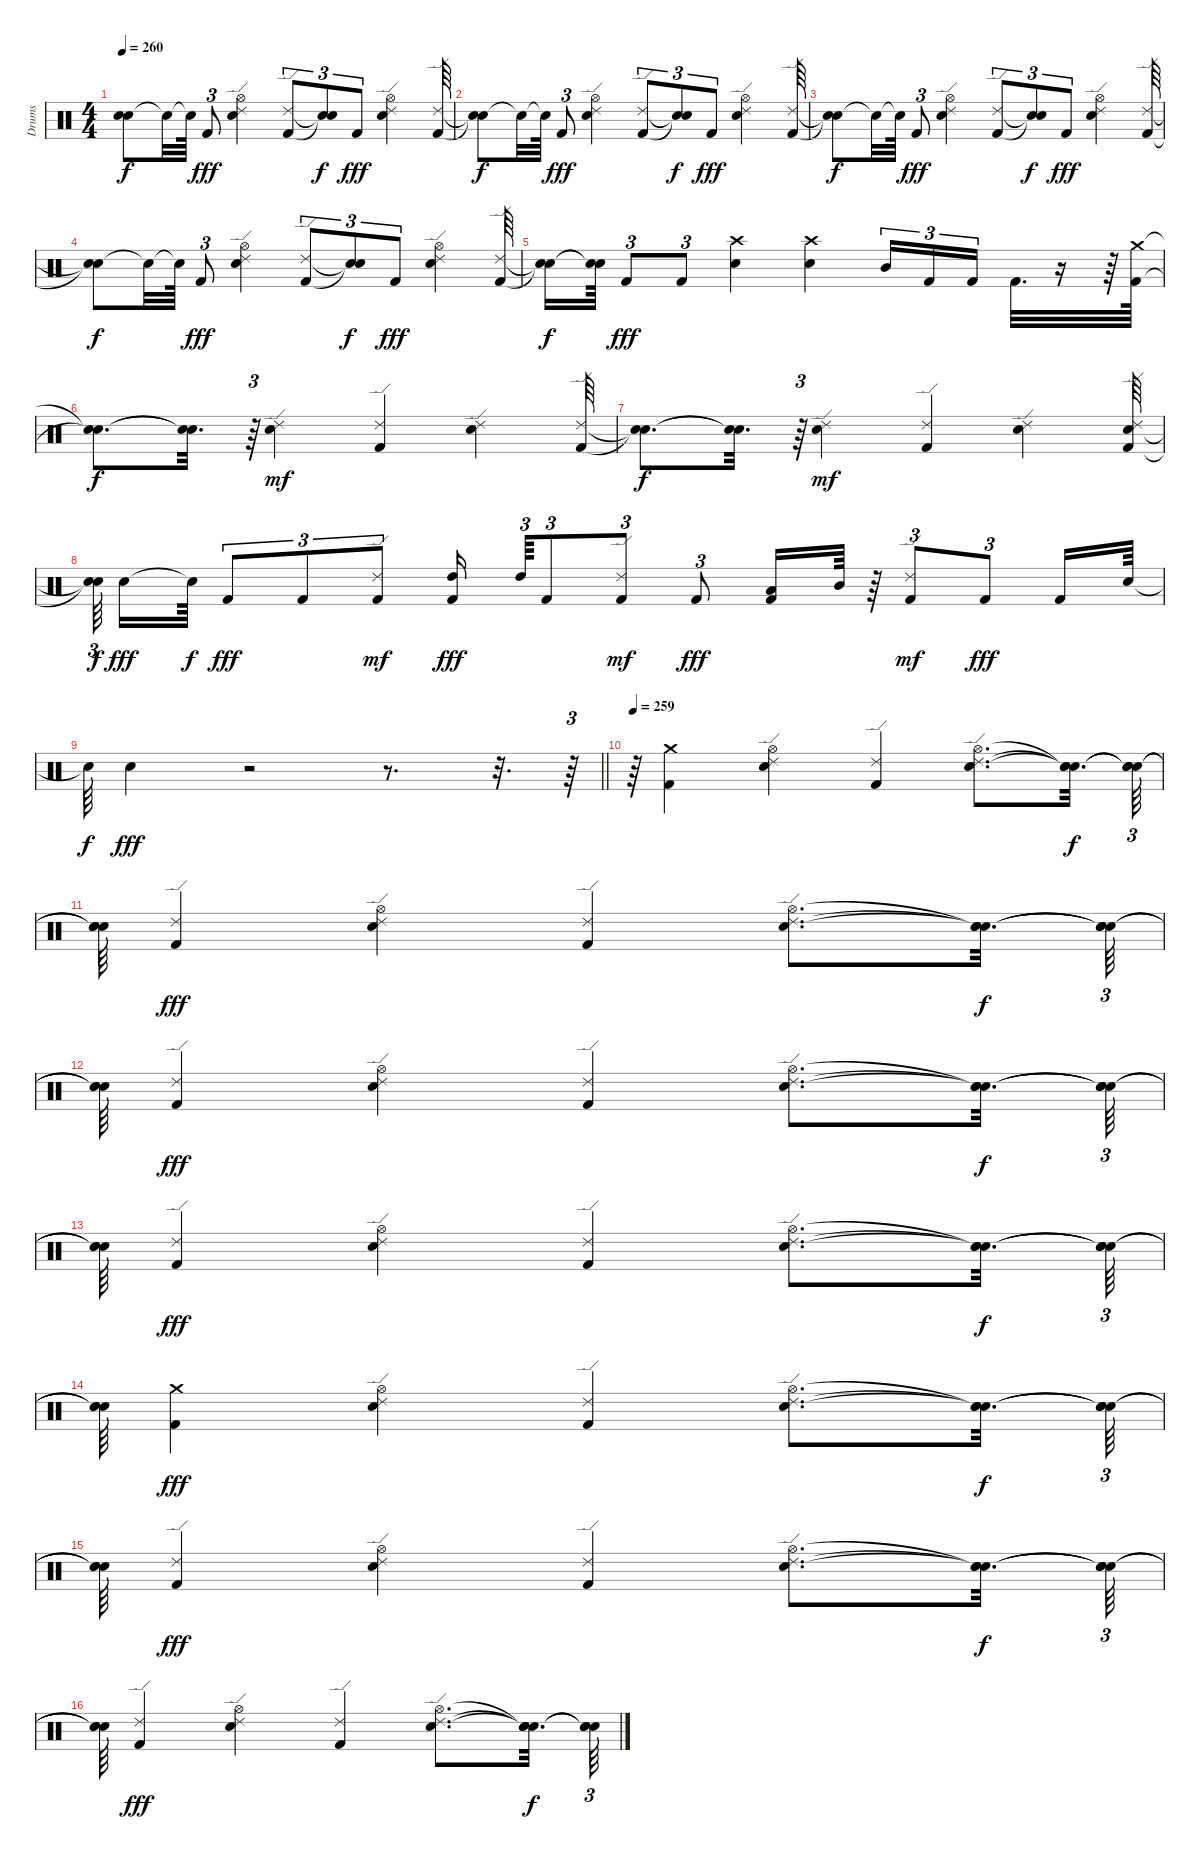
\track ("Drums" "Drums") {instrument percussion}
\staff {score}
\articulation defaults
\ts (4 4)
\tempo 260
\clef neutral
\ks c
("Snare (hit)"{t} "Snare (hit)"{t}).8{dy f} "Snare (hit)"{t}.32 "Snare (hit)"{t}.64 "Kick (hit) 2".8{tu (3 2) dy fff} ("Electric Snare (hit)" "Ride (edge) 2" "Hi-Hat (open)").4 ("Kick (hit) 2" "Ride (edge) 2").8{tu (3 2)} ("Snare (hit)"{t} "Snare (hit)"{t}).8{tu (3 2) dy f} "Kick (hit) 2".8{tu (3 2) dy fff} ("Electric Snare (hit)" "Ride (edge) 2" "Hi-Hat (open)").4 ("Kick (hit) 2" "Ride (edge) 2").64 |
("Snare (hit)"{t} "Snare (hit)"{t}).8{dy f} "Snare (hit)"{t}.32 "Snare (hit)"{t}.64 "Kick (hit) 2".8{tu (3 2) dy fff} ("Electric Snare (hit)" "Ride (edge) 2" "Hi-Hat (open)").4 ("Kick (hit) 2" "Ride (edge) 2").8{tu (3 2)} ("Snare (hit)"{t} "Snare (hit)"{t}).8{tu (3 2) dy f} "Kick (hit) 2".8{tu (3 2) dy fff} ("Electric Snare (hit)" "Ride (edge) 2" "Hi-Hat (open)").4 ("Kick (hit) 2" "Ride (edge) 2").64 |
("Snare (hit)"{t} "Snare (hit)"{t}).8{dy f} "Snare (hit)"{t}.32 "Snare (hit)"{t}.64 "Kick (hit) 2".8{tu (3 2) dy fff} ("Electric Snare (hit)" "Ride (edge) 2" "Hi-Hat (open)").4 ("Kick (hit) 2" "Ride (edge) 2").8{tu (3 2)} ("Snare (hit)"{t} "Snare (hit)"{t}).8{tu (3 2) dy f} "Kick (hit) 2".8{tu (3 2) dy fff} ("Electric Snare (hit)" "Ride (edge) 2" "Hi-Hat (open)").4 ("Kick (hit) 2" "Ride (edge) 2").64 |
("Snare (hit)"{t} "Snare (hit)"{t}).8{dy f} "Snare (hit)"{t}.32 "Snare (hit)"{t}.64 "Kick (hit) 2".8{tu (3 2) dy fff} ("Electric Snare (hit)" "Ride (edge) 2" "Hi-Hat (open)").4 ("Kick (hit) 2" "Ride (edge) 2").8{tu (3 2)} ("Snare (hit)"{t} "Snare (hit)"{t}).8{tu (3 2) dy f} "Kick (hit) 2".8{tu (3 2) dy fff} ("Electric Snare (hit)" "Ride (edge) 2" "Hi-Hat (open)").4 ("Kick (hit) 2" "Ride (edge) 2").64 |
("Snare (hit)"{t} "Snare (hit)"{t}).16{dy f} ("Snare (hit)"{t} "Snare (hit)"{t}).64 "Kick (hit) 2".8{tu (3 2) dy fff} "Kick (hit) 2".8{tu (3 2)} ("Electric Snare (hit)" "Crash high (hit)").4 ("Electric Snare (hit)" "Crash high (hit)").4 "Mid Tom (hit)".16{tu (3 2)} "Kick (hit) 2".16{tu (3 2)} "Kick (hit) 2".16{tu (3 2) beam splitsecondary} "Kick (hit) 2".32{d} r.16 r.64 ("Kick (hit) 2" "Crash medium (hit)").64 |
("Snare (hit)"{t} "Snare (hit)"{t}).8{d dy f} ("Snare (hit)"{t} "Snare (hit)"{t}).32{d} r.64{tu (3 2)} ("Electric Snare (hit)" "Ride (edge) 2").4{dy mf} ("Kick (hit) 2" "Ride (edge) 2").4 ("Electric Snare (hit)" "Ride (edge) 2").4 ("Kick (hit) 2" "Ride (edge) 2").64 |
("Snare (hit)"{t} "Snare (hit)"{t}).8{d dy f} ("Snare (hit)"{t} "Snare (hit)"{t}).32{d} r.64{tu (3 2)} ("Electric Snare (hit)" "Ride (edge) 2").4{dy mf} ("Kick (hit) 2" "Ride (edge) 2").4 ("Electric Snare (hit)" "Ride (edge) 2").4 ("Kick (hit) 2" "Electric Snare (hit)" "Ride (edge) 2").64 |
("Snare (hit)"{t} "Snare (hit)"{t}).64{tu (3 2) dy f beam splitsecondary} "Electric Snare (hit)".16{dy fff} "Snare (hit)"{t}.64{dy f} "Kick (hit) 2".8{tu (3 2) dy fff} "Kick (hit) 2".8{tu (3 2)} ("Kick (hit) 2" "Ride (edge) 2").8{tu (3 2) dy mf} ("Kick (hit) 2" "High Tom (hit)").16{dy fff beam splitsecondary} "High Tom (hit)".64{tu (3 2)} "Kick (hit) 2".8{tu (3 2)} ("Kick (hit) 2" "Ride (edge) 2").8{tu (3 2) dy mf} "Kick (hit) 2".8{tu (3 2) dy fff} ("Kick (hit) 2" "Low Tom (hit)").16 "Mid Tom (hit)".64 r.64 ("Kick (hit) 2" "Ride (edge) 2").8{tu (3 2) dy mf} "Kick (hit) 2".8{tu (3 2) dy fff} "Kick (hit) 2".16 "Electric Snare (hit)".64 |
\barLineRight lightlight "Snare (hit)"{t}.64{dy f} "Electric Snare (hit)".4{dy fff}
r.2 r.8{d} r.32{d} r.64{tu (3 2)} |
\section ("" "")
\tempo 259
r.64 ("Kick (hit) 2" "Crash medium (hit)").4 ("Electric Snare (hit)" "Ride (edge) 2" "Hi-Hat (open)").4 ("Kick (hit) 2" "Ride (edge) 2").4 ("Electric Snare (hit)" "Ride (edge) 2" "Hi-Hat (open)").8{d} ("Snare (hit)"{t} "Snare (hit)"{t} "Snare (hit)"{t}).32{d dy f} ("Snare (hit)"{t} "Snare (hit)"{t} "Snare (hit)"{t}).64{tu (3 2)} |
("Snare (hit)"{t} "Snare (hit)"{t} "Snare (hit)"{t}).64 ("Kick (hit) 2" "Ride (edge) 2").4{dy fff} ("Electric Snare (hit)" "Ride (edge) 2" "Hi-Hat (open)").4 ("Kick (hit) 2" "Ride (edge) 2").4 ("Electric Snare (hit)" "Ride (edge) 2" "Hi-Hat (open)").8{d} ("Snare (hit)"{t} "Snare (hit)"{t} "Snare (hit)"{t}).32{d dy f} ("Snare (hit)"{t} "Snare (hit)"{t} "Snare (hit)"{t}).64{tu (3 2)} |
("Snare (hit)"{t} "Snare (hit)"{t} "Snare (hit)"{t}).64 ("Kick (hit) 2" "Ride (edge) 2").4{dy fff} ("Electric Snare (hit)" "Ride (edge) 2" "Hi-Hat (open)").4 ("Kick (hit) 2" "Ride (edge) 2").4 ("Electric Snare (hit)" "Ride (edge) 2" "Hi-Hat (open)").8{d} ("Snare (hit)"{t} "Snare (hit)"{t} "Snare (hit)"{t}).32{d dy f} ("Snare (hit)"{t} "Snare (hit)"{t} "Snare (hit)"{t}).64{tu (3 2)} |
("Snare (hit)"{t} "Snare (hit)"{t} "Snare (hit)"{t}).64 ("Kick (hit) 2" "Ride (edge) 2").4{dy fff} ("Electric Snare (hit)" "Ride (edge) 2" "Hi-Hat (open)").4 ("Kick (hit) 2" "Ride (edge) 2").4 ("Electric Snare (hit)" "Ride (edge) 2" "Hi-Hat (open)").8{d} ("Snare (hit)"{t} "Snare (hit)"{t} "Snare (hit)"{t}).32{d dy f} ("Snare (hit)"{t} "Snare (hit)"{t} "Snare (hit)"{t}).64{tu (3 2)} |
("Snare (hit)"{t} "Snare (hit)"{t} "Snare (hit)"{t}).64 ("Kick (hit) 2" "Crash medium (hit)").4{dy fff} ("Electric Snare (hit)" "Ride (edge) 2" "Hi-Hat (open)").4 ("Kick (hit) 2" "Ride (edge) 2").4 ("Electric Snare (hit)" "Ride (edge) 2" "Hi-Hat (open)").8{d} ("Snare (hit)"{t} "Snare (hit)"{t} "Snare (hit)"{t}).32{d dy f} ("Snare (hit)"{t} "Snare (hit)"{t} "Snare (hit)"{t}).64{tu (3 2)} |
("Snare (hit)"{t} "Snare (hit)"{t} "Snare (hit)"{t}).64 ("Kick (hit) 2" "Ride (edge) 2").4{dy fff} ("Electric Snare (hit)" "Ride (edge) 2" "Hi-Hat (open)").4 ("Kick (hit) 2" "Ride (edge) 2").4 ("Electric Snare (hit)" "Ride (edge) 2" "Hi-Hat (open)").8{d} ("Snare (hit)"{t} "Snare (hit)"{t} "Snare (hit)"{t}).32{d dy f} ("Snare (hit)"{t} "Snare (hit)"{t} "Snare (hit)"{t}).64{tu (3 2)} |
("Snare (hit)"{t} "Snare (hit)"{t} "Snare (hit)"{t}).64 ("Kick (hit) 2" "Ride (edge) 2").4{dy fff} ("Electric Snare (hit)" "Ride (edge) 2" "Hi-Hat (open)").4 ("Kick (hit) 2" "Ride (edge) 2").4 ("Electric Snare (hit)" "Ride (edge) 2" "Hi-Hat (open)").8{d} ("Snare (hit)"{t} "Snare (hit)"{t} "Snare (hit)"{t}).32{d dy f} ("Snare (hit)"{t} "Snare (hit)"{t} "Snare (hit)"{t}).64{tu (3 2)}
